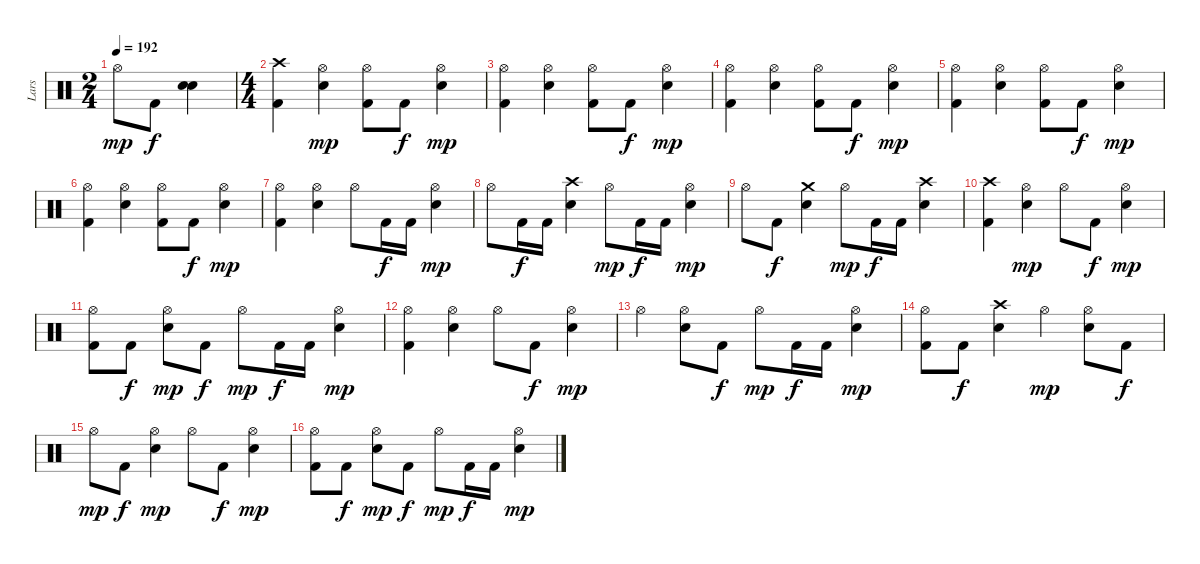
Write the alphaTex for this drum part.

\track ("Lars" "Lars") {instrument percussion}
\staff {score}
\articulation defaults
\ts (2 4)
\tempo 192
\clef neutral
\ks c "Hi-Hat (open)".8{dy mp} "Kick (hit) 2".8{dy f}
("Snare (hit) 2" "Snare (hit) 2").4 |
\ts (4 4)
("Crash high (hit)" "Kick (hit) 2").4 ("Hi-Hat (open)" "Snare (hit) 2").4{dy mp} ("Hi-Hat (open)" "Kick (hit) 2").8 "Kick (hit) 2".8{dy f} ("Hi-Hat (open)" "Snare (hit) 2").4{dy mp} |
("Hi-Hat (open)" "Kick (hit) 2").4 ("Hi-Hat (open)" "Snare (hit) 2").4 ("Hi-Hat (open)" "Kick (hit) 2").8 "Kick (hit) 2".8{dy f} ("Hi-Hat (open)" "Snare (hit) 2").4{dy mp} |
("Hi-Hat (open)" "Kick (hit) 2").4 ("Hi-Hat (open)" "Snare (hit) 2").4 ("Hi-Hat (open)" "Kick (hit) 2").8 "Kick (hit) 2".8{dy f} ("Hi-Hat (open)" "Snare (hit) 2").4{dy mp} |
("Hi-Hat (open)" "Kick (hit) 2").4 ("Hi-Hat (open)" "Snare (hit) 2").4 ("Hi-Hat (open)" "Kick (hit) 2").8 "Kick (hit) 2".8{dy f} ("Hi-Hat (open)" "Snare (hit) 2").4{dy mp} |
("Hi-Hat (open)" "Kick (hit) 2").4 ("Hi-Hat (open)" "Snare (hit) 2").4 ("Hi-Hat (open)" "Kick (hit) 2").8 "Kick (hit) 2".8{dy f} ("Hi-Hat (open)" "Snare (hit) 2").4{dy mp} |
("Hi-Hat (open)" "Kick (hit) 2").4 ("Hi-Hat (open)" "Snare (hit) 2").4 "Hi-Hat (open)".8 "Kick (hit) 2".16{dy f} "Kick (hit) 2".16 ("Hi-Hat (open)" "Snare (hit) 2").4{dy mp} |
"Hi-Hat (open)".8 "Kick (hit) 2".16{dy f} "Kick (hit) 2".16 ("Crash high (hit)" "Snare (hit) 2").4 "Hi-Hat (open)".8{dy mp} "Kick (hit) 2".16{dy f} "Kick (hit) 2".16 ("Hi-Hat (open)" "Snare (hit) 2").4{dy mp} |
"Hi-Hat (open)".8 "Kick (hit) 2".8{dy f} ("Crash medium (hit)" "Snare (hit) 2").4 "Hi-Hat (open)".8{dy mp} "Kick (hit) 2".16{dy f} "Kick (hit) 2".16 ("Crash high (hit)" "Snare (hit) 2").4 |
("Crash high (hit)" "Kick (hit) 2").4 ("Hi-Hat (open)" "Snare (hit) 2").4{dy mp} "Hi-Hat (open)".8 "Kick (hit) 2".8{dy f} ("Hi-Hat (open)" "Snare (hit) 2").4{dy mp} |
("Hi-Hat (open)" "Kick (hit) 2").8 "Kick (hit) 2".8{dy f} ("Hi-Hat (open)" "Snare (hit) 2").8{dy mp} "Kick (hit) 2".8{dy f} "Hi-Hat (open)".8{dy mp} "Kick (hit) 2".16{dy f} "Kick (hit) 2".16 ("Hi-Hat (open)" "Snare (hit) 2").4{dy mp} |
("Hi-Hat (open)" "Kick (hit) 2").4 ("Hi-Hat (open)" "Snare (hit) 2").4 "Hi-Hat (open)".8 "Kick (hit) 2".8{dy f} ("Hi-Hat (open)" "Snare (hit) 2").4{dy mp} |
"Hi-Hat (open)".4 ("Hi-Hat (open)" "Snare (hit) 2").8 "Kick (hit) 2".8{dy f} "Hi-Hat (open)".8{dy mp} "Kick (hit) 2".16{dy f} "Kick (hit) 2".16 ("Hi-Hat (open)" "Snare (hit) 2").4{dy mp} |
("Hi-Hat (open)" "Kick (hit) 2").8 "Kick (hit) 2".8{dy f} ("Crash high (hit)" "Snare (hit) 2").4 "Hi-Hat (open)".4{dy mp} ("Hi-Hat (open)" "Snare (hit) 2").8 "Kick (hit) 2".8{dy f} |
"Hi-Hat (open)".8{dy mp} "Kick (hit) 2".8{dy f} ("Hi-Hat (open)" "Snare (hit) 2").4{dy mp} "Hi-Hat (open)".8 "Kick (hit) 2".8{dy f} ("Hi-Hat (open)" "Snare (hit) 2").4{dy mp} |
("Hi-Hat (open)" "Kick (hit) 2").8 "Kick (hit) 2".8{dy f} ("Hi-Hat (open)" "Snare (hit) 2").8{dy mp} "Kick (hit) 2".8{dy f} "Hi-Hat (open)".8{dy mp} "Kick (hit) 2".16{dy f} "Kick (hit) 2".16 ("Hi-Hat (open)" "Snare (hit) 2").4{dy mp}
